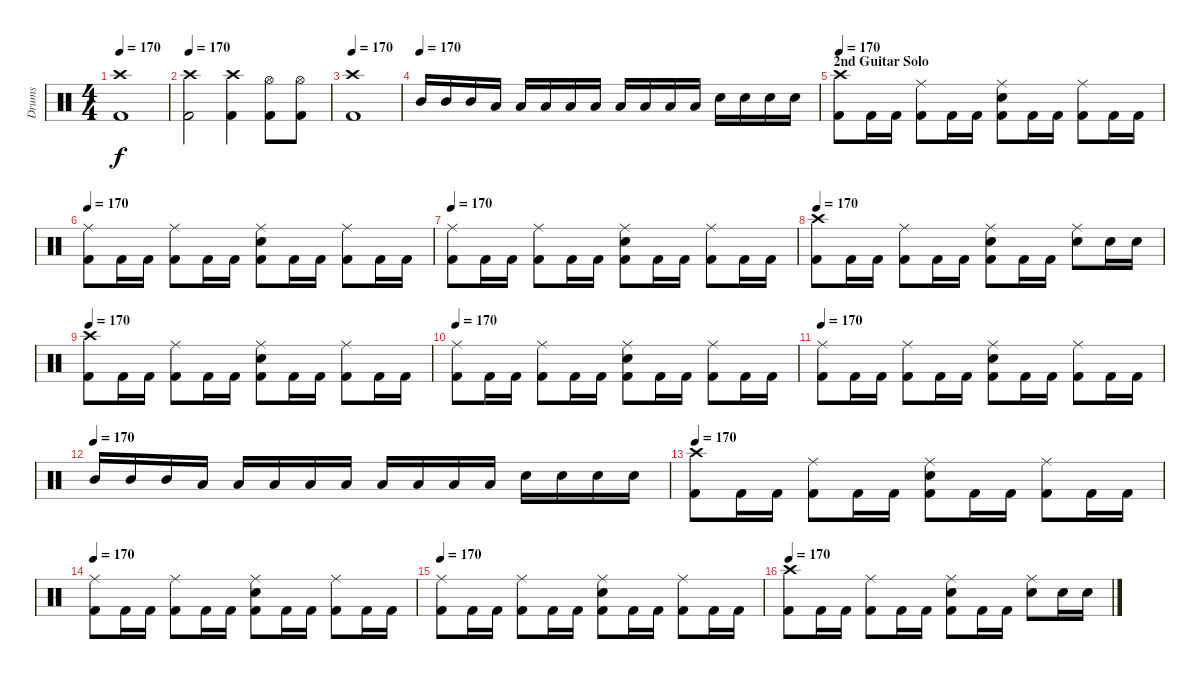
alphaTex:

\track ("Drums" "Drums") {instrument percussion}
\staff {score}
\articulation defaults
\ts (4 4)
\tempo 170
\clef neutral
\ks c
("Crash high (hit)" "Kick (hit) 2").1{dy f} |
\tempo 170
("Crash high (hit)" "Kick (hit) 2").2 ("Crash high (hit)" "Kick (hit) 2").4 ("Hi-Hat (open)" "Kick (hit) 2").8 ("Hi-Hat (open)" "Kick (hit) 2").8 |
\tempo 170
("Crash high (hit)" "Kick (hit) 2").1 |
\tempo (170)
"Mid Tom (hit)".16 "Mid Tom (hit)".16 "Mid Tom (hit)".16 "Low Tom (hit)".16 "Low Tom (hit)".16 "Low Tom (hit)".16 "Low Floor Tom (hit)".16 "Low Floor Tom (hit)".16 "Low Tom (hit)".16 "Low Tom (hit)".16 "Low Tom (hit)".16 "Low Tom (hit)".16 "Snare (hit) 2".16 "Snare (hit) 2".16 "Snare (hit) 2".16 "Snare (hit) 2".16 |
\section ("" "2nd Guitar Solo")
\tempo 170
("Crash high (hit)" "Kick (hit) 2").8 "Kick (hit) 2".16 "Kick (hit) 2".16 ("Ride (middle)" "Kick (hit) 2").8 "Kick (hit) 2".16 "Kick (hit) 2".16 ("Ride (middle)" "Snare (hit) 2" "Kick (hit) 2").8 "Kick (hit) 2".16 "Kick (hit) 2".16 ("Ride (middle)" "Kick (hit) 2").8 "Kick (hit) 2".16 "Kick (hit) 2".16 |
\tempo 170
("Ride (middle)" "Kick (hit) 2").8 "Kick (hit) 2".16 "Kick (hit) 2".16 ("Ride (middle)" "Kick (hit) 2").8 "Kick (hit) 2".16 "Kick (hit) 2".16 ("Ride (middle)" "Snare (hit) 2" "Kick (hit) 2").8 "Kick (hit) 2".16 "Kick (hit) 2".16 ("Ride (middle)" "Kick (hit) 2").8 "Kick (hit) 2".16 "Kick (hit) 2".16 |
\tempo 170
("Ride (middle)" "Kick (hit) 2").8 "Kick (hit) 2".16 "Kick (hit) 2".16 ("Ride (middle)" "Kick (hit) 2").8 "Kick (hit) 2".16 "Kick (hit) 2".16 ("Ride (middle)" "Snare (hit) 2" "Kick (hit) 2").8 "Kick (hit) 2".16 "Kick (hit) 2".16 ("Ride (middle)" "Kick (hit) 2").8 "Kick (hit) 2".16 "Kick (hit) 2".16 |
\tempo 170
("Crash high (hit)" "Kick (hit) 2").8 "Kick (hit) 2".16 "Kick (hit) 2".16 ("Ride (middle)" "Kick (hit) 2").8 "Kick (hit) 2".16 "Kick (hit) 2".16 ("Ride (middle)" "Snare (hit) 2" "Kick (hit) 2").8 "Kick (hit) 2".16 "Kick (hit) 2".16 ("Ride (middle)" "Snare (hit) 2").8 "Snare (hit) 2".16 "Snare (hit) 2".16 |
\tempo 170
("Crash high (hit)" "Kick (hit) 2").8 "Kick (hit) 2".16 "Kick (hit) 2".16 ("Ride (middle)" "Kick (hit) 2").8 "Kick (hit) 2".16 "Kick (hit) 2".16 ("Ride (middle)" "Snare (hit) 2" "Kick (hit) 2").8 "Kick (hit) 2".16 "Kick (hit) 2".16 ("Ride (middle)" "Kick (hit) 2").8 "Kick (hit) 2".16 "Kick (hit) 2".16 |
\tempo 170
("Ride (middle)" "Kick (hit) 2").8 "Kick (hit) 2".16 "Kick (hit) 2".16 ("Ride (middle)" "Kick (hit) 2").8 "Kick (hit) 2".16 "Kick (hit) 2".16 ("Ride (middle)" "Snare (hit) 2" "Kick (hit) 2").8 "Kick (hit) 2".16 "Kick (hit) 2".16 ("Ride (middle)" "Kick (hit) 2").8 "Kick (hit) 2".16 "Kick (hit) 2".16 |
\tempo 170
("Ride (middle)" "Kick (hit) 2").8 "Kick (hit) 2".16 "Kick (hit) 2".16 ("Ride (middle)" "Kick (hit) 2").8 "Kick (hit) 2".16 "Kick (hit) 2".16 ("Ride (middle)" "Snare (hit) 2" "Kick (hit) 2").8 "Kick (hit) 2".16 "Kick (hit) 2".16 ("Ride (middle)" "Kick (hit) 2").8 "Kick (hit) 2".16 "Kick (hit) 2".16 |
\tempo (170)
"Mid Tom (hit)".16 "Mid Tom (hit)".16 "Mid Tom (hit)".16 "Low Tom (hit)".16 "Low Tom (hit)".16 "Low Tom (hit)".16 "Low Floor Tom (hit)".16 "Low Floor Tom (hit)".16 "Low Tom (hit)".16 "Low Tom (hit)".16 "Low Tom (hit)".16 "Low Tom (hit)".16 "Snare (hit) 2".16 "Snare (hit) 2".16 "Snare (hit) 2".16 "Snare (hit) 2".16 |
\tempo 170
("Crash high (hit)" "Kick (hit) 2").8 "Kick (hit) 2".16 "Kick (hit) 2".16 ("Ride (middle)" "Kick (hit) 2").8 "Kick (hit) 2".16 "Kick (hit) 2".16 ("Ride (middle)" "Snare (hit) 2" "Kick (hit) 2").8 "Kick (hit) 2".16 "Kick (hit) 2".16 ("Ride (middle)" "Kick (hit) 2").8 "Kick (hit) 2".16 "Kick (hit) 2".16 |
\tempo 170
("Ride (middle)" "Kick (hit) 2").8 "Kick (hit) 2".16 "Kick (hit) 2".16 ("Ride (middle)" "Kick (hit) 2").8 "Kick (hit) 2".16 "Kick (hit) 2".16 ("Ride (middle)" "Snare (hit) 2" "Kick (hit) 2").8 "Kick (hit) 2".16 "Kick (hit) 2".16 ("Ride (middle)" "Kick (hit) 2").8 "Kick (hit) 2".16 "Kick (hit) 2".16 |
\tempo 170
("Ride (middle)" "Kick (hit) 2").8 "Kick (hit) 2".16 "Kick (hit) 2".16 ("Ride (middle)" "Kick (hit) 2").8 "Kick (hit) 2".16 "Kick (hit) 2".16 ("Ride (middle)" "Snare (hit) 2" "Kick (hit) 2").8 "Kick (hit) 2".16 "Kick (hit) 2".16 ("Ride (middle)" "Kick (hit) 2").8 "Kick (hit) 2".16 "Kick (hit) 2".16 |
\tempo 170
("Crash high (hit)" "Kick (hit) 2").8 "Kick (hit) 2".16 "Kick (hit) 2".16 ("Ride (middle)" "Kick (hit) 2").8 "Kick (hit) 2".16 "Kick (hit) 2".16 ("Ride (middle)" "Snare (hit) 2" "Kick (hit) 2").8 "Kick (hit) 2".16 "Kick (hit) 2".16 ("Ride (middle)" "Snare (hit) 2").8 "Snare (hit) 2".16 "Snare (hit) 2".16
